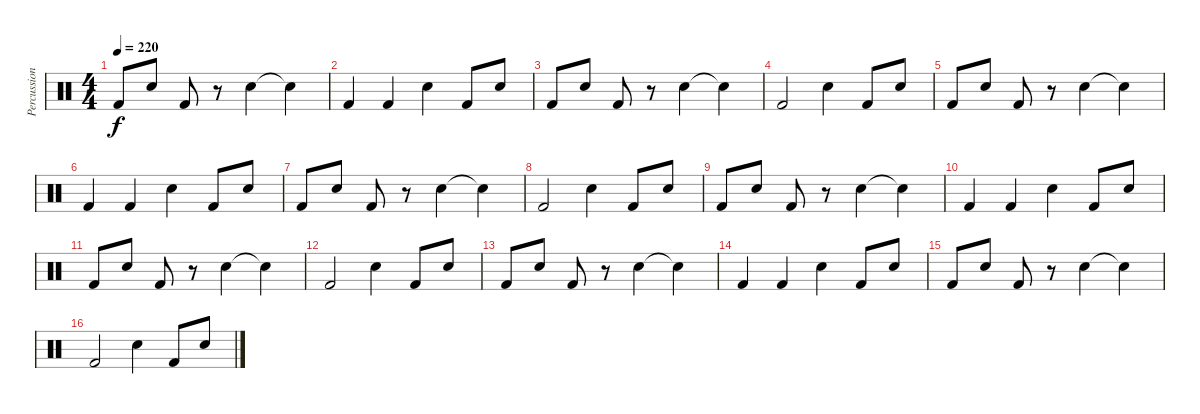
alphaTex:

\track ("Percussions" "Percussion") {instrument percussion}
\staff {score}
\articulation defaults
\ts (4 4)
\tempo 220
\clef neutral
\ks c "Kick (hit) 2".8{dy f} "Electric Snare (hit)".8 "Kick (hit) 2".8
r.8 "Electric Snare (hit)".4 "Snare (hit)"{t}.4 |
"Kick (hit) 2".4 "Kick (hit) 2".4 "Electric Snare (hit)".4 "Kick (hit) 2".8 "Electric Snare (hit)".8 |
"Kick (hit) 2".8 "Electric Snare (hit)".8 "Kick (hit) 2".8 r.8 "Electric Snare (hit)".4 "Electric Snare (hit)"{t}.4 |
"Kick (hit) 2".2 "Electric Snare (hit)".4 "Kick (hit) 2".8 "Electric Snare (hit)".8 |
"Kick (hit) 2".8 "Electric Snare (hit)".8 "Kick (hit) 2".8 r.8 "Electric Snare (hit)".4 "Snare (hit)"{t}.4 |
"Kick (hit) 2".4 "Kick (hit) 2".4 "Electric Snare (hit)".4 "Kick (hit) 2".8 "Electric Snare (hit)".8 |
"Kick (hit) 2".8 "Electric Snare (hit)".8 "Kick (hit) 2".8 r.8 "Electric Snare (hit)".4 "Electric Snare (hit)"{t}.4 |
"Kick (hit) 2".2 "Electric Snare (hit)".4 "Kick (hit) 2".8 "Electric Snare (hit)".8 |
"Kick (hit) 2".8 "Electric Snare (hit)".8 "Kick (hit) 2".8 r.8 "Electric Snare (hit)".4 "Snare (hit)"{t}.4 |
"Kick (hit) 2".4 "Kick (hit) 2".4 "Electric Snare (hit)".4 "Kick (hit) 2".8 "Electric Snare (hit)".8 |
"Kick (hit) 2".8 "Electric Snare (hit)".8 "Kick (hit) 2".8 r.8 "Electric Snare (hit)".4 "Electric Snare (hit)"{t}.4 |
"Kick (hit) 2".2 "Electric Snare (hit)".4 "Kick (hit) 2".8 "Electric Snare (hit)".8 |
"Kick (hit) 2".8 "Electric Snare (hit)".8 "Kick (hit) 2".8 r.8 "Electric Snare (hit)".4 "Snare (hit)"{t}.4 |
"Kick (hit) 2".4 "Kick (hit) 2".4 "Electric Snare (hit)".4 "Kick (hit) 2".8 "Electric Snare (hit)".8 |
"Kick (hit) 2".8 "Electric Snare (hit)".8 "Kick (hit) 2".8 r.8 "Electric Snare (hit)".4 "Snare (hit)"{t}.4 |
"Kick (hit) 2".2 "Electric Snare (hit)".4 "Kick (hit) 2".8 "Electric Snare (hit)".8
